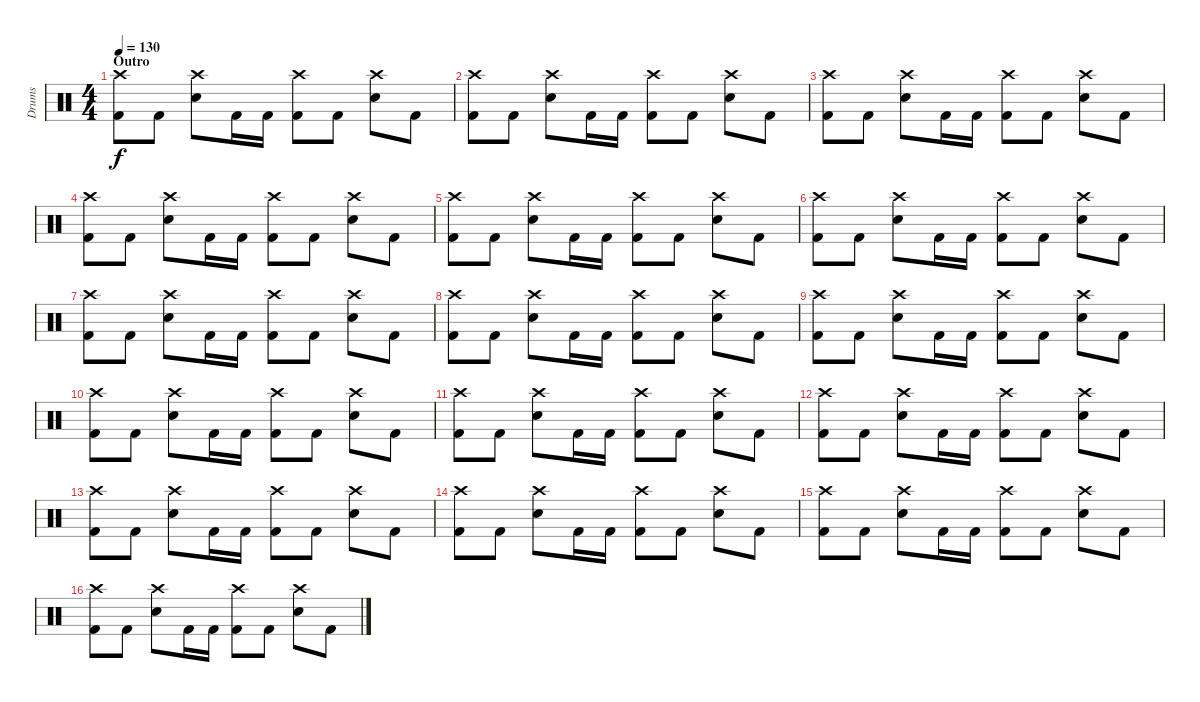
\track ("Drums" "Drums") {instrument percussion}
\staff {score}
\articulation defaults
\ts (4 4)
\section ("" "Outro")
\tempo 130
\clef neutral
\ks c
("Crash high (hit)" "Kick (hit) 2").8{dy f} "Kick (hit) 2".8 ("Crash high (hit)" "Electric Snare (hit)").8 "Kick (hit) 2".16 "Kick (hit) 2".16 ("Crash high (hit)" "Kick (hit) 2").8 "Kick (hit) 2".8 ("Crash high (hit)" "Electric Snare (hit)").8 "Kick (hit) 2".8 |
("Crash high (hit)" "Kick (hit) 2").8 "Kick (hit) 2".8 ("Crash high (hit)" "Electric Snare (hit)").8 "Kick (hit) 2".16 "Kick (hit) 2".16 ("Crash high (hit)" "Kick (hit) 2").8 "Kick (hit) 2".8 ("Crash high (hit)" "Electric Snare (hit)").8 "Kick (hit) 2".8 |
("Crash high (hit)" "Kick (hit) 2").8 "Kick (hit) 2".8 ("Crash high (hit)" "Electric Snare (hit)").8 "Kick (hit) 2".16 "Kick (hit) 2".16 ("Crash high (hit)" "Kick (hit) 2").8 "Kick (hit) 2".8 ("Crash high (hit)" "Electric Snare (hit)").8 "Kick (hit) 2".8 |
("Crash high (hit)" "Kick (hit) 2").8 "Kick (hit) 2".8 ("Crash high (hit)" "Electric Snare (hit)").8 "Kick (hit) 2".16 "Kick (hit) 2".16 ("Crash high (hit)" "Kick (hit) 2").8 "Kick (hit) 2".8 ("Crash high (hit)" "Electric Snare (hit)").8 "Kick (hit) 2".8 |
("Crash high (hit)" "Kick (hit) 2").8 "Kick (hit) 2".8 ("Crash high (hit)" "Electric Snare (hit)").8 "Kick (hit) 2".16 "Kick (hit) 2".16 ("Crash high (hit)" "Kick (hit) 2").8 "Kick (hit) 2".8 ("Crash high (hit)" "Electric Snare (hit)").8 "Kick (hit) 2".8 |
("Crash high (hit)" "Kick (hit) 2").8 "Kick (hit) 2".8 ("Crash high (hit)" "Electric Snare (hit)").8 "Kick (hit) 2".16 "Kick (hit) 2".16 ("Crash high (hit)" "Kick (hit) 2").8 "Kick (hit) 2".8 ("Crash high (hit)" "Electric Snare (hit)").8 "Kick (hit) 2".8 |
("Crash high (hit)" "Kick (hit) 2").8 "Kick (hit) 2".8 ("Crash high (hit)" "Electric Snare (hit)").8 "Kick (hit) 2".16 "Kick (hit) 2".16 ("Crash high (hit)" "Kick (hit) 2").8 "Kick (hit) 2".8 ("Crash high (hit)" "Electric Snare (hit)").8 "Kick (hit) 2".8 |
("Crash high (hit)" "Kick (hit) 2").8 "Kick (hit) 2".8 ("Crash high (hit)" "Electric Snare (hit)").8 "Kick (hit) 2".16 "Kick (hit) 2".16 ("Crash high (hit)" "Kick (hit) 2").8 "Kick (hit) 2".8 ("Crash high (hit)" "Electric Snare (hit)").8 "Kick (hit) 2".8 |
("Crash high (hit)" "Kick (hit) 2").8 "Kick (hit) 2".8 ("Crash high (hit)" "Electric Snare (hit)").8 "Kick (hit) 2".16 "Kick (hit) 2".16 ("Crash high (hit)" "Kick (hit) 2").8 "Kick (hit) 2".8 ("Crash high (hit)" "Electric Snare (hit)").8 "Kick (hit) 2".8 |
("Crash high (hit)" "Kick (hit) 2").8 "Kick (hit) 2".8 ("Crash high (hit)" "Electric Snare (hit)").8 "Kick (hit) 2".16 "Kick (hit) 2".16 ("Crash high (hit)" "Kick (hit) 2").8 "Kick (hit) 2".8 ("Crash high (hit)" "Electric Snare (hit)").8 "Kick (hit) 2".8 |
("Crash high (hit)" "Kick (hit) 2").8 "Kick (hit) 2".8 ("Crash high (hit)" "Electric Snare (hit)").8 "Kick (hit) 2".16 "Kick (hit) 2".16 ("Crash high (hit)" "Kick (hit) 2").8 "Kick (hit) 2".8 ("Crash high (hit)" "Electric Snare (hit)").8 "Kick (hit) 2".8 |
("Crash high (hit)" "Kick (hit) 2").8 "Kick (hit) 2".8 ("Crash high (hit)" "Electric Snare (hit)").8 "Kick (hit) 2".16 "Kick (hit) 2".16 ("Crash high (hit)" "Kick (hit) 2").8 "Kick (hit) 2".8 ("Crash high (hit)" "Electric Snare (hit)").8 "Kick (hit) 2".8 |
("Crash high (hit)" "Kick (hit) 2").8 "Kick (hit) 2".8 ("Crash high (hit)" "Electric Snare (hit)").8 "Kick (hit) 2".16 "Kick (hit) 2".16 ("Crash high (hit)" "Kick (hit) 2").8 "Kick (hit) 2".8 ("Crash high (hit)" "Electric Snare (hit)").8 "Kick (hit) 2".8 |
("Crash high (hit)" "Kick (hit) 2").8 "Kick (hit) 2".8 ("Crash high (hit)" "Electric Snare (hit)").8 "Kick (hit) 2".16 "Kick (hit) 2".16 ("Crash high (hit)" "Kick (hit) 2").8 "Kick (hit) 2".8 ("Crash high (hit)" "Electric Snare (hit)").8 "Kick (hit) 2".8 |
("Crash high (hit)" "Kick (hit) 2").8 "Kick (hit) 2".8 ("Crash high (hit)" "Electric Snare (hit)").8 "Kick (hit) 2".16 "Kick (hit) 2".16 ("Crash high (hit)" "Kick (hit) 2").8 "Kick (hit) 2".8 ("Crash high (hit)" "Electric Snare (hit)").8 "Kick (hit) 2".8 |
("Crash high (hit)" "Kick (hit) 2").8 "Kick (hit) 2".8 ("Crash high (hit)" "Electric Snare (hit)").8 "Kick (hit) 2".16 "Kick (hit) 2".16 ("Crash high (hit)" "Kick (hit) 2").8 "Kick (hit) 2".8 ("Crash high (hit)" "Electric Snare (hit)").8 "Kick (hit) 2".8
